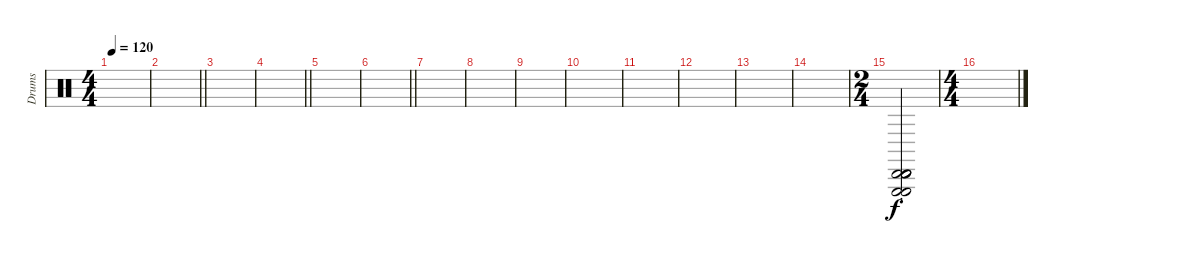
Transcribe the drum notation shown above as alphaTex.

\track ("Drums" "Drums") {instrument percussion}
\staff {score}
\articulation defaults
\ts (4 4)
\tempo 120
\clef neutral
\ks c
|
\barLineRight lightlight
|
|
\barLineRight lightlight
|
|
\barLineRight lightlight
|
|
|
|
|
|
|
|
|
\ts (2 4)
("Cabasa (hit)" "Triangle (hit)" "Cabasa (hit)" "Cabasa (hit)" "Cabasa (hit)"{st} "Triangle (hit)").2{volume 16} |
\ts (4 4)
